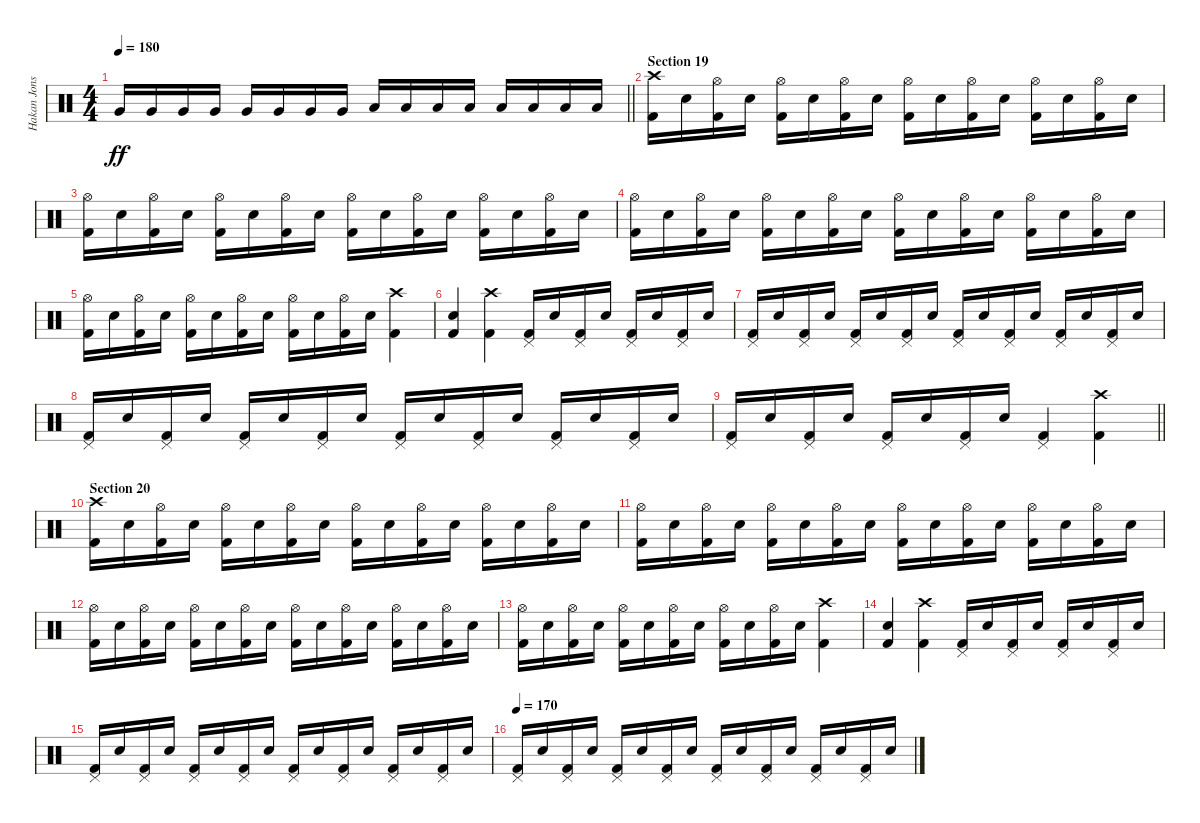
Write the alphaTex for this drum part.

\track ("Hakan Jonsson" "Hakan Jons") {instrument percussion}
\staff {score}
\articulation defaults
\ts (4 4)
\tempo 180
\clef neutral
\barLineRight lightlight
\ks c "Very Low Tom (hit)".16{dy ff} "Very Low Tom (hit)".16 "Very Low Tom (hit)".16 "Very Low Tom (hit)".16 "Very Low Tom (hit)".16 "Very Low Tom (hit)".16 "Very Low Tom (hit)".16 "Very Low Tom (hit)".16 "Low Floor Tom (hit)".16 "Low Floor Tom (hit)".16 "Low Floor Tom (hit)".16 "Low Floor Tom (hit)".16 "Low Floor Tom (hit)".16 "Low Floor Tom (hit)".16 "Low Floor Tom (hit)".16 "Low Floor Tom (hit)".16
|
\section ("" "Section 19")
("Crash high (hit)" "Kick (hit) 2").16 "Electric Snare (hit)".16 ("Hi-Hat (open)" "Kick (hit) 2").16 "Electric Snare (hit)".16 ("Hi-Hat (open)" "Kick (hit) 2").16 "Electric Snare (hit)".16 ("Hi-Hat (open)" "Kick (hit) 2").16 "Electric Snare (hit)".16 ("Hi-Hat (open)" "Kick (hit) 2").16 "Electric Snare (hit)".16 ("Hi-Hat (open)" "Kick (hit) 2").16 "Electric Snare (hit)".16 ("Hi-Hat (open)" "Kick (hit) 2").16 "Electric Snare (hit)".16 ("Hi-Hat (open)" "Kick (hit) 2").16 "Electric Snare (hit)".16 |
("Hi-Hat (open)" "Kick (hit) 2").16 "Electric Snare (hit)".16 ("Hi-Hat (open)" "Kick (hit) 2").16 "Electric Snare (hit)".16 ("Hi-Hat (open)" "Kick (hit) 2").16 "Electric Snare (hit)".16 ("Hi-Hat (open)" "Kick (hit) 2").16 "Electric Snare (hit)".16 ("Hi-Hat (open)" "Kick (hit) 2").16 "Electric Snare (hit)".16 ("Hi-Hat (open)" "Kick (hit) 2").16 "Electric Snare (hit)".16 ("Hi-Hat (open)" "Kick (hit) 2").16 "Electric Snare (hit)".16 ("Hi-Hat (open)" "Kick (hit) 2").16 "Electric Snare (hit)".16 |
("Hi-Hat (open)" "Kick (hit) 2").16 "Electric Snare (hit)".16 ("Hi-Hat (open)" "Kick (hit) 2").16 "Electric Snare (hit)".16 ("Hi-Hat (open)" "Kick (hit) 2").16 "Electric Snare (hit)".16 ("Hi-Hat (open)" "Kick (hit) 2").16 "Electric Snare (hit)".16 ("Hi-Hat (open)" "Kick (hit) 2").16 "Electric Snare (hit)".16 ("Hi-Hat (open)" "Kick (hit) 2").16 "Electric Snare (hit)".16 ("Hi-Hat (open)" "Kick (hit) 2").16 "Electric Snare (hit)".16 ("Hi-Hat (open)" "Kick (hit) 2").16 "Electric Snare (hit)".16 |
("Hi-Hat (open)" "Kick (hit) 2").16 "Electric Snare (hit)".16 ("Hi-Hat (open)" "Kick (hit) 2").16 "Electric Snare (hit)".16 ("Hi-Hat (open)" "Kick (hit) 2").16 "Electric Snare (hit)".16 ("Hi-Hat (open)" "Kick (hit) 2").16 "Electric Snare (hit)".16 ("Hi-Hat (open)" "Kick (hit) 2").16 "Electric Snare (hit)".16 ("Hi-Hat (open)" "Kick (hit) 2").16 "Electric Snare (hit)".16 ("Crash high (hit)" "Kick (hit) 2").4 |
("Electric Snare (hit)" "Kick (hit) 2").4 ("Crash high (hit)" "Kick (hit) 2").4 ("Pedal Hi-Hat (hit)" "Kick (hit) 2").16 "Electric Snare (hit)".16 ("Pedal Hi-Hat (hit)" "Kick (hit) 2").16 "Electric Snare (hit)".16 ("Pedal Hi-Hat (hit)" "Kick (hit) 2").16 "Electric Snare (hit)".16 ("Pedal Hi-Hat (hit)" "Kick (hit) 2").16 "Electric Snare (hit)".16 |
("Pedal Hi-Hat (hit)" "Kick (hit) 2").16 "Electric Snare (hit)".16 ("Pedal Hi-Hat (hit)" "Kick (hit) 2").16 "Electric Snare (hit)".16 ("Pedal Hi-Hat (hit)" "Kick (hit) 2").16 "Electric Snare (hit)".16 ("Pedal Hi-Hat (hit)" "Kick (hit) 2").16 "Electric Snare (hit)".16 ("Pedal Hi-Hat (hit)" "Kick (hit) 2").16 "Electric Snare (hit)".16 ("Pedal Hi-Hat (hit)" "Kick (hit) 2").16 "Electric Snare (hit)".16 ("Pedal Hi-Hat (hit)" "Kick (hit) 2").16 "Electric Snare (hit)".16 ("Pedal Hi-Hat (hit)" "Kick (hit) 2").16 "Electric Snare (hit)".16 |
("Pedal Hi-Hat (hit)" "Kick (hit) 2").16 "Electric Snare (hit)".16 ("Pedal Hi-Hat (hit)" "Kick (hit) 2").16 "Electric Snare (hit)".16 ("Pedal Hi-Hat (hit)" "Kick (hit) 2").16 "Electric Snare (hit)".16 ("Pedal Hi-Hat (hit)" "Kick (hit) 2").16 "Electric Snare (hit)".16 ("Pedal Hi-Hat (hit)" "Kick (hit) 2").16 "Electric Snare (hit)".16 ("Pedal Hi-Hat (hit)" "Kick (hit) 2").16 "Electric Snare (hit)".16 ("Pedal Hi-Hat (hit)" "Kick (hit) 2").16 "Electric Snare (hit)".16 ("Pedal Hi-Hat (hit)" "Kick (hit) 2").16 "Electric Snare (hit)".16 |
\barLineRight lightlight
("Pedal Hi-Hat (hit)" "Kick (hit) 2").16 "Electric Snare (hit)".16 ("Pedal Hi-Hat (hit)" "Kick (hit) 2").16 "Electric Snare (hit)".16 ("Pedal Hi-Hat (hit)" "Kick (hit) 2").16 "Electric Snare (hit)".16 ("Pedal Hi-Hat (hit)" "Kick (hit) 2").16 "Electric Snare (hit)".16 ("Pedal Hi-Hat (hit)" "Kick (hit) 2").4 ("Crash high (hit)" "Kick (hit) 2").4 |
\section ("" "Section 20")
("Crash high (hit)" "Kick (hit) 2").16 "Electric Snare (hit)".16 ("Hi-Hat (open)" "Kick (hit) 2").16 "Electric Snare (hit)".16 ("Hi-Hat (open)" "Kick (hit) 2").16 "Electric Snare (hit)".16 ("Hi-Hat (open)" "Kick (hit) 2").16 "Electric Snare (hit)".16 ("Hi-Hat (open)" "Kick (hit) 2").16 "Electric Snare (hit)".16 ("Hi-Hat (open)" "Kick (hit) 2").16 "Electric Snare (hit)".16 ("Hi-Hat (open)" "Kick (hit) 2").16 "Electric Snare (hit)".16 ("Hi-Hat (open)" "Kick (hit) 2").16 "Electric Snare (hit)".16 |
("Hi-Hat (open)" "Kick (hit) 2").16 "Electric Snare (hit)".16 ("Hi-Hat (open)" "Kick (hit) 2").16 "Electric Snare (hit)".16 ("Hi-Hat (open)" "Kick (hit) 2").16 "Electric Snare (hit)".16 ("Hi-Hat (open)" "Kick (hit) 2").16 "Electric Snare (hit)".16 ("Hi-Hat (open)" "Kick (hit) 2").16 "Electric Snare (hit)".16 ("Hi-Hat (open)" "Kick (hit) 2").16 "Electric Snare (hit)".16 ("Hi-Hat (open)" "Kick (hit) 2").16 "Electric Snare (hit)".16 ("Hi-Hat (open)" "Kick (hit) 2").16 "Electric Snare (hit)".16 |
("Hi-Hat (open)" "Kick (hit) 2").16 "Electric Snare (hit)".16 ("Hi-Hat (open)" "Kick (hit) 2").16 "Electric Snare (hit)".16 ("Hi-Hat (open)" "Kick (hit) 2").16 "Electric Snare (hit)".16 ("Hi-Hat (open)" "Kick (hit) 2").16 "Electric Snare (hit)".16 ("Hi-Hat (open)" "Kick (hit) 2").16 "Electric Snare (hit)".16 ("Hi-Hat (open)" "Kick (hit) 2").16 "Electric Snare (hit)".16 ("Hi-Hat (open)" "Kick (hit) 2").16 "Electric Snare (hit)".16 ("Hi-Hat (open)" "Kick (hit) 2").16 "Electric Snare (hit)".16 |
("Hi-Hat (open)" "Kick (hit) 2").16 "Electric Snare (hit)".16 ("Hi-Hat (open)" "Kick (hit) 2").16 "Electric Snare (hit)".16 ("Hi-Hat (open)" "Kick (hit) 2").16 "Electric Snare (hit)".16 ("Hi-Hat (open)" "Kick (hit) 2").16 "Electric Snare (hit)".16 ("Hi-Hat (open)" "Kick (hit) 2").16 "Electric Snare (hit)".16 ("Hi-Hat (open)" "Kick (hit) 2").16 "Electric Snare (hit)".16 ("Crash high (hit)" "Kick (hit) 2").4 |
("Electric Snare (hit)" "Kick (hit) 2").4 ("Crash high (hit)" "Kick (hit) 2").4 ("Pedal Hi-Hat (hit)" "Kick (hit) 2").16 "Electric Snare (hit)".16 ("Pedal Hi-Hat (hit)" "Kick (hit) 2").16 "Electric Snare (hit)".16 ("Pedal Hi-Hat (hit)" "Kick (hit) 2").16 "Electric Snare (hit)".16 ("Pedal Hi-Hat (hit)" "Kick (hit) 2").16 "Electric Snare (hit)".16 |
("Pedal Hi-Hat (hit)" "Kick (hit) 2").16 "Electric Snare (hit)".16 ("Pedal Hi-Hat (hit)" "Kick (hit) 2").16 "Electric Snare (hit)".16 ("Pedal Hi-Hat (hit)" "Kick (hit) 2").16 "Electric Snare (hit)".16 ("Pedal Hi-Hat (hit)" "Kick (hit) 2").16 "Electric Snare (hit)".16 ("Pedal Hi-Hat (hit)" "Kick (hit) 2").16 "Electric Snare (hit)".16 ("Pedal Hi-Hat (hit)" "Kick (hit) 2").16 "Electric Snare (hit)".16 ("Pedal Hi-Hat (hit)" "Kick (hit) 2").16 "Electric Snare (hit)".16 ("Pedal Hi-Hat (hit)" "Kick (hit) 2").16 "Electric Snare (hit)".16 |
\tempo 170
("Pedal Hi-Hat (hit)" "Kick (hit) 2").16 "Electric Snare (hit)".16 ("Pedal Hi-Hat (hit)" "Kick (hit) 2").16 "Electric Snare (hit)".16 ("Pedal Hi-Hat (hit)" "Kick (hit) 2").16 "Electric Snare (hit)".16 ("Pedal Hi-Hat (hit)" "Kick (hit) 2").16 "Electric Snare (hit)".16 ("Pedal Hi-Hat (hit)" "Kick (hit) 2").16 "Electric Snare (hit)".16 ("Pedal Hi-Hat (hit)" "Kick (hit) 2").16 "Electric Snare (hit)".16 ("Pedal Hi-Hat (hit)" "Kick (hit) 2").16 "Electric Snare (hit)".16 ("Pedal Hi-Hat (hit)" "Kick (hit) 2").16 "Electric Snare (hit)".16
